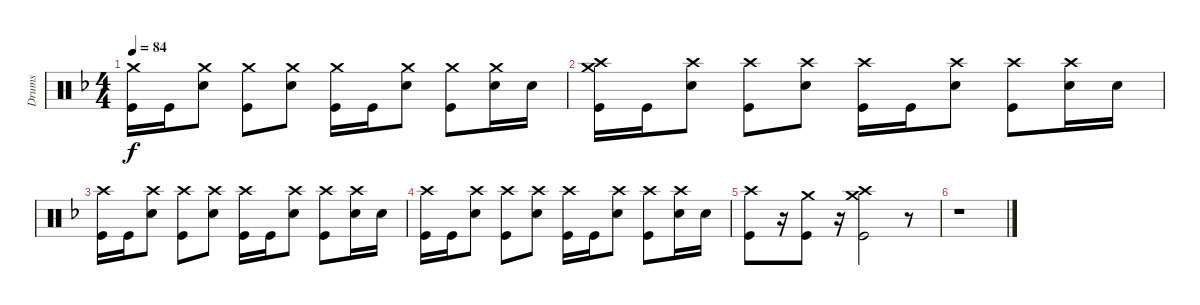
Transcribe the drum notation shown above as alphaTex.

\track ("Drums" "Drums") {instrument percussion}
\staff {score}
\articulation defaults
\ts (4 4)
\tempo 84
\clef neutral
\ks dminor
("Crash medium (hit)" "Kick (hit)").16{dy f} "Kick (hit)".16 ("Crash medium (hit)" "Snare (hit) 2").8 ("Crash medium (hit)" "Kick (hit)").8 ("Crash medium (hit)" "Snare (hit) 2").8 ("Crash medium (hit)" "Kick (hit)").16 "Kick (hit)".16 ("Crash medium (hit)" "Snare (hit) 2").8 ("Crash medium (hit)" "Kick (hit)").8 ("Crash medium (hit)" "Snare (hit) 2").16 "Snare (hit) 2".16 |
("Crash medium (hit)" "Crash high (hit)" "Kick (hit)").16 "Kick (hit)".16 ("Crash high (hit)" "Snare (hit) 2").8 ("Crash high (hit)" "Kick (hit)").8 ("Crash high (hit)" "Snare (hit) 2").8 ("Crash high (hit)" "Kick (hit)").16 "Kick (hit)".16 ("Crash high (hit)" "Snare (hit) 2").8 ("Crash high (hit)" "Kick (hit)").8 ("Crash high (hit)" "Snare (hit) 2").16 "Snare (hit) 2".16 |
("Crash high (hit)" "Kick (hit)").16 "Kick (hit)".16 ("Crash high (hit)" "Snare (hit) 2").8 ("Crash high (hit)" "Kick (hit)").8 ("Crash high (hit)" "Snare (hit) 2").8 ("Crash high (hit)" "Kick (hit)").16 "Kick (hit)".16 ("Crash high (hit)" "Snare (hit) 2").8 ("Crash high (hit)" "Kick (hit)").8 ("Crash high (hit)" "Snare (hit) 2").16 "Snare (hit) 2".16 |
("Crash high (hit)" "Kick (hit)").16 "Kick (hit)".16 ("Crash high (hit)" "Snare (hit) 2").8 ("Crash high (hit)" "Kick (hit)").8 ("Crash high (hit)" "Snare (hit) 2").8 ("Crash high (hit)" "Kick (hit)").16 "Kick (hit)".16 ("Crash high (hit)" "Snare (hit) 2").8 ("Crash high (hit)" "Kick (hit)").8 ("Crash high (hit)" "Snare (hit) 2").16 "Snare (hit) 2".16 |
("Crash high (hit)" "Kick (hit)").8 r.16 ("Crash medium (hit)" "Kick (hit)").8 r.16 ("Crash medium (hit)" "Crash high (hit)" "Kick (hit)").2 r.8 |
r.1
